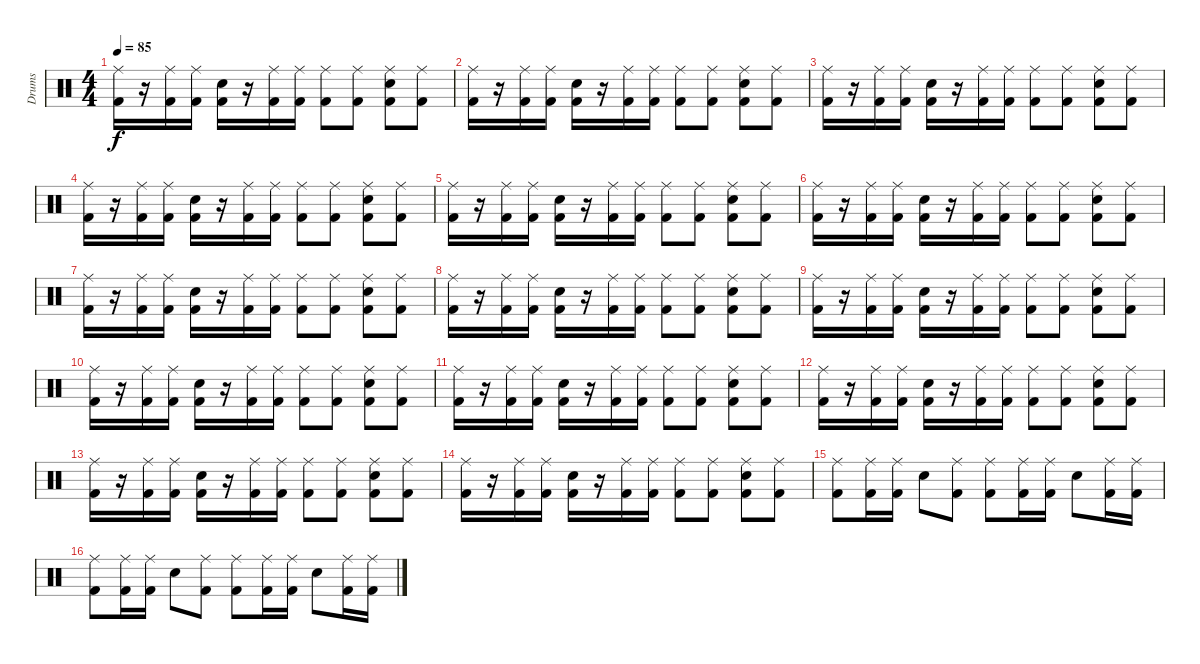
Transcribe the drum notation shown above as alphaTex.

\track ("Drums" "Drums") {instrument percussion}
\staff {score}
\articulation defaults
\ts (4 4)
\tempo 85
\clef neutral
\ks c
("Ride (middle)" "Kick (hit) 2").16{dy f} r.16 ("Ride (middle)" "Kick (hit) 2").16 ("Ride (middle)" "Kick (hit) 2").16 ("Snare (hit) 2" "Kick (hit) 2").16 r.16 ("Ride (middle)" "Kick (hit) 2").16 ("Ride (middle)" "Kick (hit) 2").16 ("Ride (middle)" "Kick (hit) 2").8 ("Ride (middle)" "Kick (hit) 2").8 ("Ride (middle)" "Snare (hit) 2" "Kick (hit) 2").8 ("Ride (middle)" "Kick (hit) 2").8 |
("Ride (middle)" "Kick (hit) 2").16 r.16 ("Ride (middle)" "Kick (hit) 2").16 ("Ride (middle)" "Kick (hit) 2").16 ("Snare (hit) 2" "Kick (hit) 2").16 r.16 ("Ride (middle)" "Kick (hit) 2").16 ("Ride (middle)" "Kick (hit) 2").16 ("Ride (middle)" "Kick (hit) 2").8 ("Ride (middle)" "Kick (hit) 2").8 ("Ride (middle)" "Snare (hit) 2" "Kick (hit) 2").8 ("Ride (middle)" "Kick (hit) 2").8 |
("Ride (middle)" "Kick (hit) 2").16 r.16 ("Ride (middle)" "Kick (hit) 2").16 ("Ride (middle)" "Kick (hit) 2").16 ("Snare (hit) 2" "Kick (hit) 2").16 r.16 ("Ride (middle)" "Kick (hit) 2").16 ("Ride (middle)" "Kick (hit) 2").16 ("Ride (middle)" "Kick (hit) 2").8 ("Ride (middle)" "Kick (hit) 2").8 ("Ride (middle)" "Snare (hit) 2" "Kick (hit) 2").8 ("Ride (middle)" "Kick (hit) 2").8 |
("Ride (middle)" "Kick (hit) 2").16 r.16 ("Ride (middle)" "Kick (hit) 2").16 ("Ride (middle)" "Kick (hit) 2").16 ("Snare (hit) 2" "Kick (hit) 2").16 r.16 ("Ride (middle)" "Kick (hit) 2").16 ("Ride (middle)" "Kick (hit) 2").16 ("Ride (middle)" "Kick (hit) 2").8 ("Ride (middle)" "Kick (hit) 2").8 ("Ride (middle)" "Snare (hit) 2" "Kick (hit) 2").8 ("Ride (middle)" "Kick (hit) 2").8 |
("Ride (middle)" "Kick (hit) 2").16 r.16 ("Ride (middle)" "Kick (hit) 2").16 ("Ride (middle)" "Kick (hit) 2").16 ("Snare (hit) 2" "Kick (hit) 2").16 r.16 ("Ride (middle)" "Kick (hit) 2").16 ("Ride (middle)" "Kick (hit) 2").16 ("Ride (middle)" "Kick (hit) 2").8 ("Ride (middle)" "Kick (hit) 2").8 ("Ride (middle)" "Snare (hit) 2" "Kick (hit) 2").8 ("Ride (middle)" "Kick (hit) 2").8 |
("Ride (middle)" "Kick (hit) 2").16 r.16 ("Ride (middle)" "Kick (hit) 2").16 ("Ride (middle)" "Kick (hit) 2").16 ("Snare (hit) 2" "Kick (hit) 2").16 r.16 ("Ride (middle)" "Kick (hit) 2").16 ("Ride (middle)" "Kick (hit) 2").16 ("Ride (middle)" "Kick (hit) 2").8 ("Ride (middle)" "Kick (hit) 2").8 ("Ride (middle)" "Snare (hit) 2" "Kick (hit) 2").8 ("Ride (middle)" "Kick (hit) 2").8 |
("Ride (middle)" "Kick (hit) 2").16 r.16 ("Ride (middle)" "Kick (hit) 2").16 ("Ride (middle)" "Kick (hit) 2").16 ("Snare (hit) 2" "Kick (hit) 2").16 r.16 ("Ride (middle)" "Kick (hit) 2").16 ("Ride (middle)" "Kick (hit) 2").16 ("Ride (middle)" "Kick (hit) 2").8 ("Ride (middle)" "Kick (hit) 2").8 ("Ride (middle)" "Snare (hit) 2" "Kick (hit) 2").8 ("Ride (middle)" "Kick (hit) 2").8 |
("Ride (middle)" "Kick (hit) 2").16 r.16 ("Ride (middle)" "Kick (hit) 2").16 ("Ride (middle)" "Kick (hit) 2").16 ("Snare (hit) 2" "Kick (hit) 2").16 r.16 ("Ride (middle)" "Kick (hit) 2").16 ("Ride (middle)" "Kick (hit) 2").16 ("Ride (middle)" "Kick (hit) 2").8 ("Ride (middle)" "Kick (hit) 2").8 ("Ride (middle)" "Snare (hit) 2" "Kick (hit) 2").8 ("Ride (middle)" "Kick (hit) 2").8 |
("Ride (middle)" "Kick (hit) 2").16 r.16 ("Ride (middle)" "Kick (hit) 2").16 ("Ride (middle)" "Kick (hit) 2").16 ("Snare (hit) 2" "Kick (hit) 2").16 r.16 ("Ride (middle)" "Kick (hit) 2").16 ("Ride (middle)" "Kick (hit) 2").16 ("Ride (middle)" "Kick (hit) 2").8 ("Ride (middle)" "Kick (hit) 2").8 ("Ride (middle)" "Snare (hit) 2" "Kick (hit) 2").8 ("Ride (middle)" "Kick (hit) 2").8 |
("Ride (middle)" "Kick (hit) 2").16 r.16 ("Ride (middle)" "Kick (hit) 2").16 ("Ride (middle)" "Kick (hit) 2").16 ("Snare (hit) 2" "Kick (hit) 2").16 r.16 ("Ride (middle)" "Kick (hit) 2").16 ("Ride (middle)" "Kick (hit) 2").16 ("Ride (middle)" "Kick (hit) 2").8 ("Ride (middle)" "Kick (hit) 2").8 ("Ride (middle)" "Snare (hit) 2" "Kick (hit) 2").8 ("Ride (middle)" "Kick (hit) 2").8 |
("Ride (middle)" "Kick (hit) 2").16 r.16 ("Ride (middle)" "Kick (hit) 2").16 ("Ride (middle)" "Kick (hit) 2").16 ("Snare (hit) 2" "Kick (hit) 2").16 r.16 ("Ride (middle)" "Kick (hit) 2").16 ("Ride (middle)" "Kick (hit) 2").16 ("Ride (middle)" "Kick (hit) 2").8 ("Ride (middle)" "Kick (hit) 2").8 ("Ride (middle)" "Snare (hit) 2" "Kick (hit) 2").8 ("Ride (middle)" "Kick (hit) 2").8 |
("Ride (middle)" "Kick (hit) 2").16 r.16 ("Ride (middle)" "Kick (hit) 2").16 ("Ride (middle)" "Kick (hit) 2").16 ("Snare (hit) 2" "Kick (hit) 2").16 r.16 ("Ride (middle)" "Kick (hit) 2").16 ("Ride (middle)" "Kick (hit) 2").16 ("Ride (middle)" "Kick (hit) 2").8 ("Ride (middle)" "Kick (hit) 2").8 ("Ride (middle)" "Snare (hit) 2" "Kick (hit) 2").8 ("Ride (middle)" "Kick (hit) 2").8 |
("Ride (middle)" "Kick (hit) 2").16 r.16 ("Ride (middle)" "Kick (hit) 2").16 ("Ride (middle)" "Kick (hit) 2").16 ("Snare (hit) 2" "Kick (hit) 2").16 r.16 ("Ride (middle)" "Kick (hit) 2").16 ("Ride (middle)" "Kick (hit) 2").16 ("Ride (middle)" "Kick (hit) 2").8 ("Ride (middle)" "Kick (hit) 2").8 ("Ride (middle)" "Snare (hit) 2" "Kick (hit) 2").8 ("Ride (middle)" "Kick (hit) 2").8 |
("Ride (middle)" "Kick (hit) 2").16 r.16 ("Ride (middle)" "Kick (hit) 2").16 ("Ride (middle)" "Kick (hit) 2").16 ("Snare (hit) 2" "Kick (hit) 2").16 r.16 ("Ride (middle)" "Kick (hit) 2").16 ("Ride (middle)" "Kick (hit) 2").16 ("Ride (middle)" "Kick (hit) 2").8 ("Ride (middle)" "Kick (hit) 2").8 ("Ride (middle)" "Snare (hit) 2" "Kick (hit) 2").8 ("Ride (middle)" "Kick (hit) 2").8 |
("Ride (middle)" "Kick (hit) 2").8 ("Ride (middle)" "Kick (hit) 2").16 ("Ride (middle)" "Kick (hit) 2").16 "Snare (hit) 2".8 ("Ride (middle)" "Kick (hit) 2").8 ("Ride (middle)" "Kick (hit) 2").8 ("Ride (middle)" "Kick (hit) 2").16 ("Ride (middle)" "Kick (hit) 2").16 "Snare (hit) 2".8 ("Ride (middle)" "Kick (hit) 2").16 ("Ride (middle)" "Kick (hit) 2").16 |
("Ride (middle)" "Kick (hit) 2").8 ("Ride (middle)" "Kick (hit) 2").16 ("Ride (middle)" "Kick (hit) 2").16 "Snare (hit) 2".8 ("Ride (middle)" "Kick (hit) 2").8 ("Ride (middle)" "Kick (hit) 2").8 ("Ride (middle)" "Kick (hit) 2").16 ("Ride (middle)" "Kick (hit) 2").16 "Snare (hit) 2".8 ("Ride (middle)" "Kick (hit) 2").16 ("Ride (middle)" "Kick (hit) 2").16
